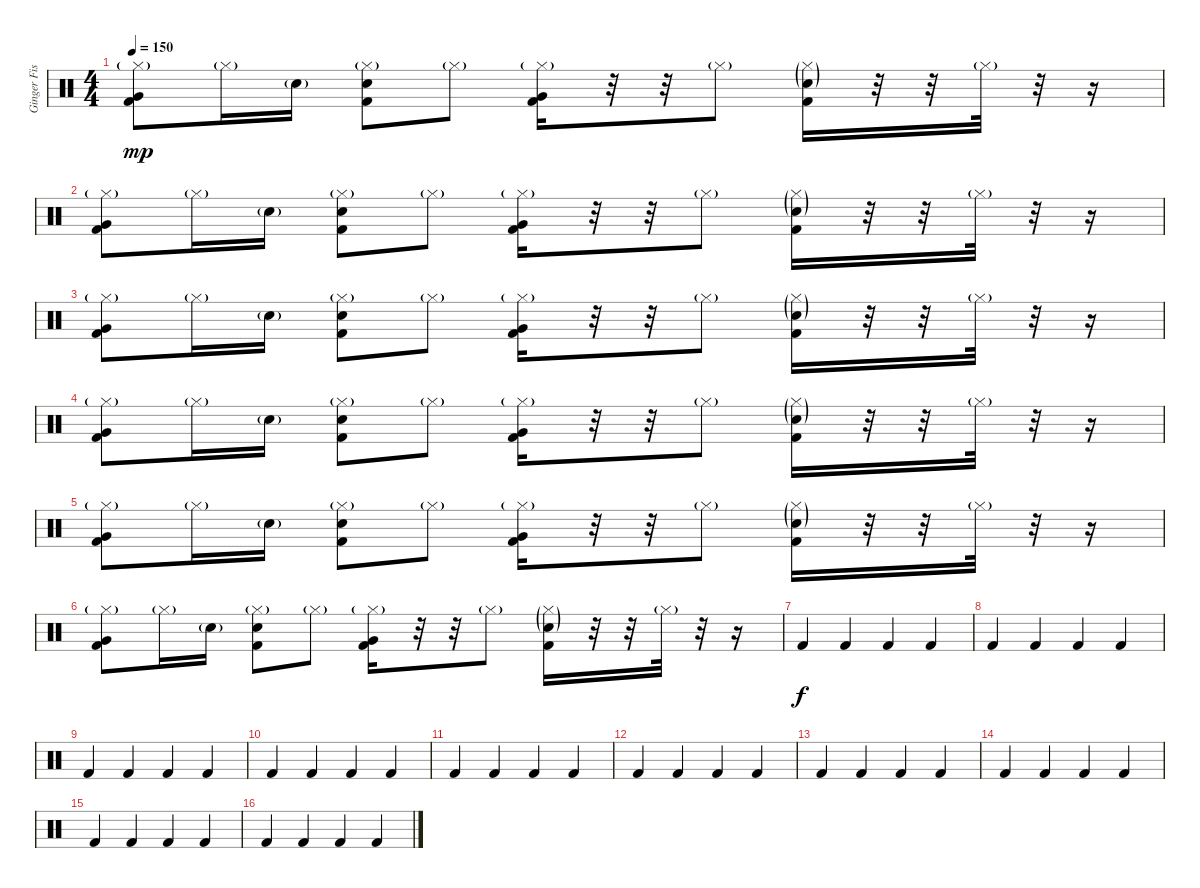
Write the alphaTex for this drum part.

\track ("Ginger Fish" "Ginger Fis") {instrument percussion}
\staff {score}
\articulation defaults
\ts (4 4)
\tempo 150
\clef neutral
\ks c
("Hi-Hat (closed)"{g} "Very Low Tom (hit)" "Kick (hit) 2").8{dy mp} "Hi-Hat (closed)"{g}.16 "Electric Snare (hit)"{g}.16 ("Hi-Hat (closed)"{g} "Electric Snare (hit)" "Kick (hit) 2").8 "Hi-Hat (closed)"{g}.8 ("Hi-Hat (closed)"{g} "Very Low Tom (hit)" "Kick (hit) 2").16 r.32 r.32 "Hi-Hat (closed)"{g}.8 ("Hi-Hat (closed)"{g} "Electric Snare (hit)"{g} "Kick (hit) 2").16 r.32 r.32 "Hi-Hat (closed)"{g}.32 r.32 r.16 |
("Hi-Hat (closed)"{g} "Very Low Tom (hit)" "Kick (hit) 2").8 "Hi-Hat (closed)"{g}.16 "Electric Snare (hit)"{g}.16 ("Hi-Hat (closed)"{g} "Electric Snare (hit)" "Kick (hit) 2").8 "Hi-Hat (closed)"{g}.8 ("Hi-Hat (closed)"{g} "Very Low Tom (hit)" "Kick (hit) 2").16 r.32 r.32 "Hi-Hat (closed)"{g}.8 ("Hi-Hat (closed)"{g} "Electric Snare (hit)"{g} "Kick (hit) 2").16 r.32 r.32 "Hi-Hat (closed)"{g}.32 r.32 r.16 |
("Hi-Hat (closed)"{g} "Very Low Tom (hit)" "Kick (hit) 2").8 "Hi-Hat (closed)"{g}.16 "Electric Snare (hit)"{g}.16 ("Hi-Hat (closed)"{g} "Electric Snare (hit)" "Kick (hit) 2").8 "Hi-Hat (closed)"{g}.8 ("Hi-Hat (closed)"{g} "Very Low Tom (hit)" "Kick (hit) 2").16 r.32 r.32 "Hi-Hat (closed)"{g}.8 ("Hi-Hat (closed)"{g} "Electric Snare (hit)"{g} "Kick (hit) 2").16 r.32 r.32 "Hi-Hat (closed)"{g}.32 r.32 r.16 |
("Hi-Hat (closed)"{g} "Very Low Tom (hit)" "Kick (hit) 2").8 "Hi-Hat (closed)"{g}.16 "Electric Snare (hit)"{g}.16 ("Hi-Hat (closed)"{g} "Electric Snare (hit)" "Kick (hit) 2").8 "Hi-Hat (closed)"{g}.8 ("Hi-Hat (closed)"{g} "Very Low Tom (hit)" "Kick (hit) 2").16 r.32 r.32 "Hi-Hat (closed)"{g}.8 ("Hi-Hat (closed)"{g} "Electric Snare (hit)"{g} "Kick (hit) 2").16 r.32 r.32 "Hi-Hat (closed)"{g}.32 r.32 r.16 |
("Hi-Hat (closed)"{g} "Very Low Tom (hit)" "Kick (hit) 2").8 "Hi-Hat (closed)"{g}.16 "Electric Snare (hit)"{g}.16 ("Hi-Hat (closed)"{g} "Electric Snare (hit)" "Kick (hit) 2").8 "Hi-Hat (closed)"{g}.8 ("Hi-Hat (closed)"{g} "Very Low Tom (hit)" "Kick (hit) 2").16 r.32 r.32 "Hi-Hat (closed)"{g}.8 ("Hi-Hat (closed)"{g} "Electric Snare (hit)"{g} "Kick (hit) 2").16 r.32 r.32 "Hi-Hat (closed)"{g}.32 r.32 r.16 |
("Hi-Hat (closed)"{g} "Very Low Tom (hit)" "Kick (hit) 2").8 "Hi-Hat (closed)"{g}.16 "Electric Snare (hit)"{g}.16 ("Hi-Hat (closed)"{g} "Electric Snare (hit)" "Kick (hit) 2").8 "Hi-Hat (closed)"{g}.8 ("Hi-Hat (closed)"{g} "Very Low Tom (hit)" "Kick (hit) 2").16 r.32 r.32 "Hi-Hat (closed)"{g}.8 ("Hi-Hat (closed)"{g} "Electric Snare (hit)"{g} "Kick (hit) 2").16 r.32 r.32 "Hi-Hat (closed)"{g}.32 r.32 r.16 |
"Kick (hit) 2".4{dy f} "Kick (hit) 2".4 "Kick (hit) 2".4 "Kick (hit) 2".4 |
"Kick (hit) 2".4 "Kick (hit) 2".4 "Kick (hit) 2".4 "Kick (hit) 2".4 |
"Kick (hit) 2".4 "Kick (hit) 2".4 "Kick (hit) 2".4 "Kick (hit) 2".4 |
"Kick (hit) 2".4 "Kick (hit) 2".4 "Kick (hit) 2".4 "Kick (hit) 2".4 |
"Kick (hit) 2".4 "Kick (hit) 2".4 "Kick (hit) 2".4 "Kick (hit) 2".4 |
"Kick (hit) 2".4 "Kick (hit) 2".4 "Kick (hit) 2".4 "Kick (hit) 2".4 |
"Kick (hit) 2".4 "Kick (hit) 2".4 "Kick (hit) 2".4 "Kick (hit) 2".4 |
"Kick (hit) 2".4 "Kick (hit) 2".4 "Kick (hit) 2".4 "Kick (hit) 2".4 |
"Kick (hit) 2".4 "Kick (hit) 2".4 "Kick (hit) 2".4 "Kick (hit) 2".4 |
"Kick (hit) 2".4 "Kick (hit) 2".4 "Kick (hit) 2".4 "Kick (hit) 2".4
